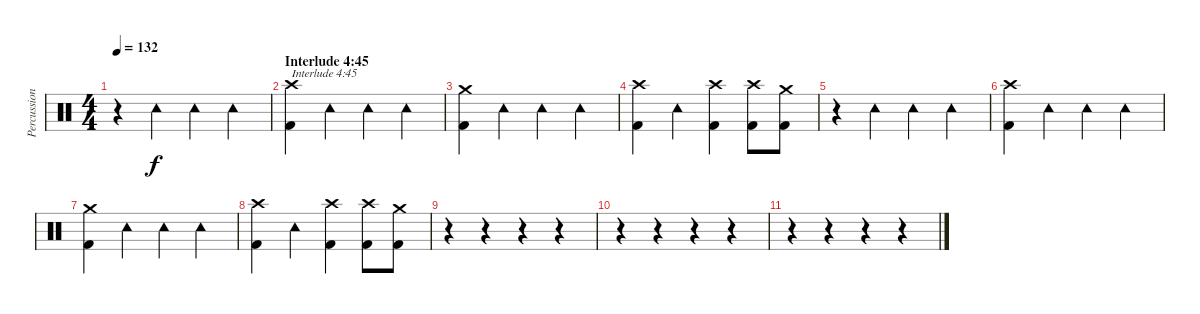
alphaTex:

\track ("Percussion" "Percussion") {instrument percussion}
\staff {score}
\articulation defaults
\ts (4 4)
\tempo 132
\clef neutral
\ks c
r.4{dy f} "Tambourine (hit)".4 "Tambourine (hit)".4 "Tambourine (hit)".4 |
\section ("" "Interlude 4:45")
("Kick (hit) 2" "Crash high (hit)").4{txt "Interlude 4:45"} "Tambourine (hit)".4 "Tambourine (hit)".4 "Tambourine (hit)".4 |
("Kick (hit) 2" "Crash medium (hit)").4 "Tambourine (hit)".4 "Tambourine (hit)".4 "Tambourine (hit)".4 |
("Kick (hit) 2" "Crash high (hit)").4 "Tambourine (hit)".4 ("Kick (hit) 2" "Crash high (hit)").4 ("Kick (hit) 2" "Crash high (hit)").8 ("Kick (hit) 2" "Crash medium (hit)").8 |
r.4 "Tambourine (hit)".4 "Tambourine (hit)".4 "Tambourine (hit)".4 |
("Kick (hit) 2" "Crash high (hit)").4 "Tambourine (hit)".4 "Tambourine (hit)".4 "Tambourine (hit)".4 |
("Kick (hit) 2" "Crash medium (hit)").4 "Tambourine (hit)".4 "Tambourine (hit)".4 "Tambourine (hit)".4 |
("Kick (hit) 2" "Crash high (hit)").4 "Tambourine (hit)".4 ("Kick (hit) 2" "Crash high (hit)").4 ("Kick (hit) 2" "Crash high (hit)").8 ("Kick (hit) 2" "Crash medium (hit)").8 |
r.4 r.4 r.4 r.4 |
r.4 r.4 r.4 r.4 |
r.4 r.4 r.4 r.4
